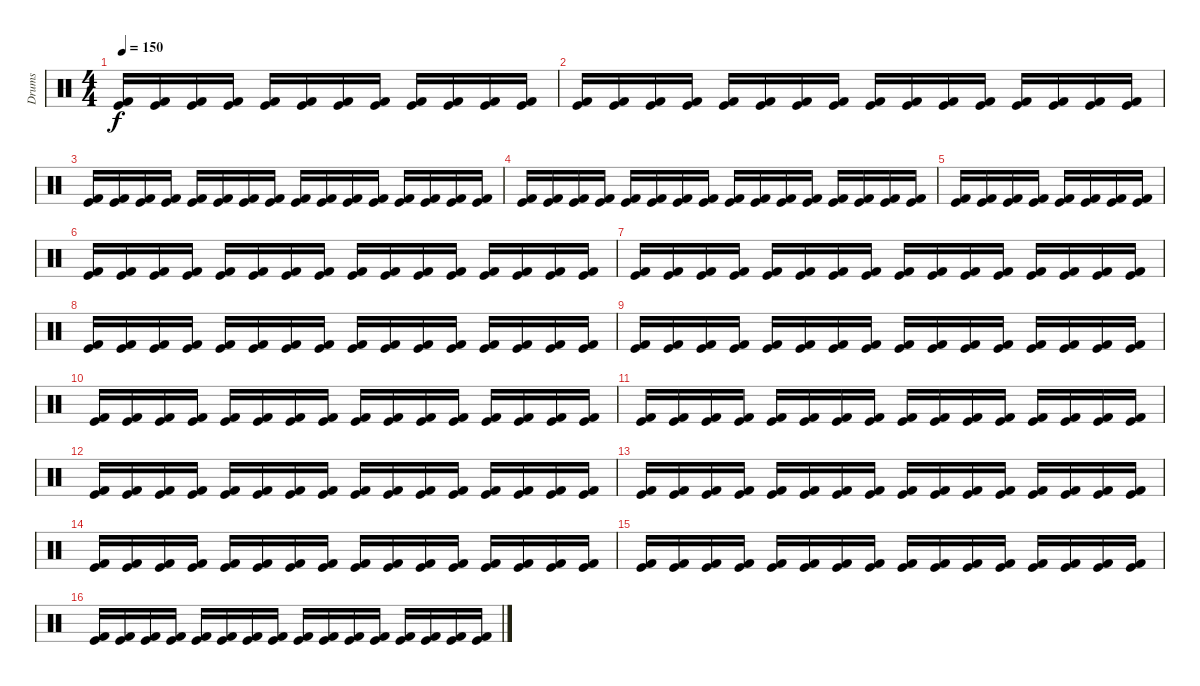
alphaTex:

\track ("Drums" "Drums") {instrument percussion}
\staff {score}
\articulation defaults
\ts (4 4)
\tempo 150
\clef neutral
\ks c
("Kick (hit) 2" "Kick (hit)").16{dy f} ("Kick (hit) 2" "Kick (hit)").16 ("Kick (hit) 2" "Kick (hit)").16 ("Kick (hit) 2" "Kick (hit)").16 ("Kick (hit) 2" "Kick (hit)").16 ("Kick (hit) 2" "Kick (hit)").16 ("Kick (hit) 2" "Kick (hit)").16 ("Kick (hit) 2" "Kick (hit)").16 ("Kick (hit) 2" "Kick (hit)").16 ("Kick (hit) 2" "Kick (hit)").16 ("Kick (hit) 2" "Kick (hit)").16 ("Kick (hit) 2" "Kick (hit)").16 |
("Kick (hit) 2" "Kick (hit)").16 ("Kick (hit) 2" "Kick (hit)").16 ("Kick (hit) 2" "Kick (hit)").16 ("Kick (hit) 2" "Kick (hit)").16 ("Kick (hit) 2" "Kick (hit)").16 ("Kick (hit) 2" "Kick (hit)").16 ("Kick (hit) 2" "Kick (hit)").16 ("Kick (hit) 2" "Kick (hit)").16 ("Kick (hit) 2" "Kick (hit)").16 ("Kick (hit) 2" "Kick (hit)").16 ("Kick (hit) 2" "Kick (hit)").16 ("Kick (hit) 2" "Kick (hit)").16 ("Kick (hit) 2" "Kick (hit)").16 ("Kick (hit) 2" "Kick (hit)").16 ("Kick (hit) 2" "Kick (hit)").16 ("Kick (hit) 2" "Kick (hit)").16 |
("Kick (hit) 2" "Kick (hit)").16 ("Kick (hit) 2" "Kick (hit)").16 ("Kick (hit) 2" "Kick (hit)").16 ("Kick (hit) 2" "Kick (hit)").16 ("Kick (hit) 2" "Kick (hit)").16 ("Kick (hit) 2" "Kick (hit)").16 ("Kick (hit) 2" "Kick (hit)").16 ("Kick (hit) 2" "Kick (hit)").16 ("Kick (hit) 2" "Kick (hit)").16 ("Kick (hit) 2" "Kick (hit)").16 ("Kick (hit) 2" "Kick (hit)").16 ("Kick (hit) 2" "Kick (hit)").16 ("Kick (hit) 2" "Kick (hit)").16 ("Kick (hit) 2" "Kick (hit)").16 ("Kick (hit) 2" "Kick (hit)").16 ("Kick (hit) 2" "Kick (hit)").16 |
("Kick (hit) 2" "Kick (hit)").16 ("Kick (hit) 2" "Kick (hit)").16 ("Kick (hit) 2" "Kick (hit)").16 ("Kick (hit) 2" "Kick (hit)").16 ("Kick (hit) 2" "Kick (hit)").16 ("Kick (hit) 2" "Kick (hit)").16 ("Kick (hit) 2" "Kick (hit)").16 ("Kick (hit) 2" "Kick (hit)").16 ("Kick (hit) 2" "Kick (hit)").16 ("Kick (hit) 2" "Kick (hit)").16 ("Kick (hit) 2" "Kick (hit)").16 ("Kick (hit) 2" "Kick (hit)").16 ("Kick (hit) 2" "Kick (hit)").16 ("Kick (hit) 2" "Kick (hit)").16 ("Kick (hit) 2" "Kick (hit)").16 ("Kick (hit) 2" "Kick (hit)").16 |
("Kick (hit) 2" "Kick (hit)").16 ("Kick (hit) 2" "Kick (hit)").16 ("Kick (hit) 2" "Kick (hit)").16 ("Kick (hit) 2" "Kick (hit)").16 ("Kick (hit) 2" "Kick (hit)").16 ("Kick (hit) 2" "Kick (hit)").16 ("Kick (hit) 2" "Kick (hit)").16 ("Kick (hit) 2" "Kick (hit)").16 |
("Kick (hit) 2" "Kick (hit)").16 ("Kick (hit) 2" "Kick (hit)").16 ("Kick (hit) 2" "Kick (hit)").16 ("Kick (hit) 2" "Kick (hit)").16 ("Kick (hit) 2" "Kick (hit)").16 ("Kick (hit) 2" "Kick (hit)").16 ("Kick (hit) 2" "Kick (hit)").16 ("Kick (hit) 2" "Kick (hit)").16 ("Kick (hit) 2" "Kick (hit)").16 ("Kick (hit) 2" "Kick (hit)").16 ("Kick (hit) 2" "Kick (hit)").16 ("Kick (hit) 2" "Kick (hit)").16 ("Kick (hit) 2" "Kick (hit)").16 ("Kick (hit) 2" "Kick (hit)").16 ("Kick (hit) 2" "Kick (hit)").16 ("Kick (hit) 2" "Kick (hit)").16 |
("Kick (hit) 2" "Kick (hit)").16 ("Kick (hit) 2" "Kick (hit)").16 ("Kick (hit) 2" "Kick (hit)").16 ("Kick (hit) 2" "Kick (hit)").16 ("Kick (hit) 2" "Kick (hit)").16 ("Kick (hit) 2" "Kick (hit)").16 ("Kick (hit) 2" "Kick (hit)").16 ("Kick (hit) 2" "Kick (hit)").16 ("Kick (hit) 2" "Kick (hit)").16 ("Kick (hit) 2" "Kick (hit)").16 ("Kick (hit) 2" "Kick (hit)").16 ("Kick (hit) 2" "Kick (hit)").16 ("Kick (hit) 2" "Kick (hit)").16 ("Kick (hit) 2" "Kick (hit)").16 ("Kick (hit) 2" "Kick (hit)").16 ("Kick (hit) 2" "Kick (hit)").16 |
("Kick (hit) 2" "Kick (hit)").16 ("Kick (hit) 2" "Kick (hit)").16 ("Kick (hit) 2" "Kick (hit)").16 ("Kick (hit) 2" "Kick (hit)").16 ("Kick (hit) 2" "Kick (hit)").16 ("Kick (hit) 2" "Kick (hit)").16 ("Kick (hit) 2" "Kick (hit)").16 ("Kick (hit) 2" "Kick (hit)").16 ("Kick (hit) 2" "Kick (hit)").16 ("Kick (hit) 2" "Kick (hit)").16 ("Kick (hit) 2" "Kick (hit)").16 ("Kick (hit) 2" "Kick (hit)").16 ("Kick (hit) 2" "Kick (hit)").16 ("Kick (hit) 2" "Kick (hit)").16 ("Kick (hit) 2" "Kick (hit)").16 ("Kick (hit) 2" "Kick (hit)").16 |
("Kick (hit) 2" "Kick (hit)").16 ("Kick (hit) 2" "Kick (hit)").16 ("Kick (hit) 2" "Kick (hit)").16 ("Kick (hit) 2" "Kick (hit)").16 ("Kick (hit) 2" "Kick (hit)").16 ("Kick (hit) 2" "Kick (hit)").16 ("Kick (hit) 2" "Kick (hit)").16 ("Kick (hit) 2" "Kick (hit)").16 ("Kick (hit) 2" "Kick (hit)").16 ("Kick (hit) 2" "Kick (hit)").16 ("Kick (hit) 2" "Kick (hit)").16 ("Kick (hit) 2" "Kick (hit)").16 ("Kick (hit) 2" "Kick (hit)").16 ("Kick (hit) 2" "Kick (hit)").16 ("Kick (hit) 2" "Kick (hit)").16 ("Kick (hit) 2" "Kick (hit)").16 |
("Kick (hit) 2" "Kick (hit)").16 ("Kick (hit) 2" "Kick (hit)").16 ("Kick (hit) 2" "Kick (hit)").16 ("Kick (hit) 2" "Kick (hit)").16 ("Kick (hit) 2" "Kick (hit)").16 ("Kick (hit) 2" "Kick (hit)").16 ("Kick (hit) 2" "Kick (hit)").16 ("Kick (hit) 2" "Kick (hit)").16 ("Kick (hit) 2" "Kick (hit)").16 ("Kick (hit) 2" "Kick (hit)").16 ("Kick (hit) 2" "Kick (hit)").16 ("Kick (hit) 2" "Kick (hit)").16 ("Kick (hit) 2" "Kick (hit)").16 ("Kick (hit) 2" "Kick (hit)").16 ("Kick (hit) 2" "Kick (hit)").16 ("Kick (hit) 2" "Kick (hit)").16 |
("Kick (hit) 2" "Kick (hit)").16 ("Kick (hit) 2" "Kick (hit)").16 ("Kick (hit) 2" "Kick (hit)").16 ("Kick (hit) 2" "Kick (hit)").16 ("Kick (hit) 2" "Kick (hit)").16 ("Kick (hit) 2" "Kick (hit)").16 ("Kick (hit) 2" "Kick (hit)").16 ("Kick (hit) 2" "Kick (hit)").16 ("Kick (hit) 2" "Kick (hit)").16 ("Kick (hit) 2" "Kick (hit)").16 ("Kick (hit) 2" "Kick (hit)").16 ("Kick (hit) 2" "Kick (hit)").16 ("Kick (hit) 2" "Kick (hit)").16 ("Kick (hit) 2" "Kick (hit)").16 ("Kick (hit) 2" "Kick (hit)").16 ("Kick (hit) 2" "Kick (hit)").16 |
("Kick (hit) 2" "Kick (hit)").16 ("Kick (hit) 2" "Kick (hit)").16 ("Kick (hit) 2" "Kick (hit)").16 ("Kick (hit) 2" "Kick (hit)").16 ("Kick (hit) 2" "Kick (hit)").16 ("Kick (hit) 2" "Kick (hit)").16 ("Kick (hit) 2" "Kick (hit)").16 ("Kick (hit) 2" "Kick (hit)").16 ("Kick (hit) 2" "Kick (hit)").16 ("Kick (hit) 2" "Kick (hit)").16 ("Kick (hit) 2" "Kick (hit)").16 ("Kick (hit) 2" "Kick (hit)").16 ("Kick (hit) 2" "Kick (hit)").16 ("Kick (hit) 2" "Kick (hit)").16 ("Kick (hit) 2" "Kick (hit)").16 ("Kick (hit) 2" "Kick (hit)").16 |
("Kick (hit) 2" "Kick (hit)").16 ("Kick (hit) 2" "Kick (hit)").16 ("Kick (hit) 2" "Kick (hit)").16 ("Kick (hit) 2" "Kick (hit)").16 ("Kick (hit) 2" "Kick (hit)").16 ("Kick (hit) 2" "Kick (hit)").16 ("Kick (hit) 2" "Kick (hit)").16 ("Kick (hit) 2" "Kick (hit)").16 ("Kick (hit) 2" "Kick (hit)").16 ("Kick (hit) 2" "Kick (hit)").16 ("Kick (hit) 2" "Kick (hit)").16 ("Kick (hit) 2" "Kick (hit)").16 ("Kick (hit) 2" "Kick (hit)").16 ("Kick (hit) 2" "Kick (hit)").16 ("Kick (hit) 2" "Kick (hit)").16 ("Kick (hit) 2" "Kick (hit)").16 |
("Kick (hit) 2" "Kick (hit)").16 ("Kick (hit) 2" "Kick (hit)").16 ("Kick (hit) 2" "Kick (hit)").16 ("Kick (hit) 2" "Kick (hit)").16 ("Kick (hit) 2" "Kick (hit)").16 ("Kick (hit) 2" "Kick (hit)").16 ("Kick (hit) 2" "Kick (hit)").16 ("Kick (hit) 2" "Kick (hit)").16 ("Kick (hit) 2" "Kick (hit)").16 ("Kick (hit) 2" "Kick (hit)").16 ("Kick (hit) 2" "Kick (hit)").16 ("Kick (hit) 2" "Kick (hit)").16 ("Kick (hit) 2" "Kick (hit)").16 ("Kick (hit) 2" "Kick (hit)").16 ("Kick (hit) 2" "Kick (hit)").16 ("Kick (hit) 2" "Kick (hit)").16 |
("Kick (hit) 2" "Kick (hit)").16 ("Kick (hit) 2" "Kick (hit)").16 ("Kick (hit) 2" "Kick (hit)").16 ("Kick (hit) 2" "Kick (hit)").16 ("Kick (hit) 2" "Kick (hit)").16 ("Kick (hit) 2" "Kick (hit)").16 ("Kick (hit) 2" "Kick (hit)").16 ("Kick (hit) 2" "Kick (hit)").16 ("Kick (hit) 2" "Kick (hit)").16 ("Kick (hit) 2" "Kick (hit)").16 ("Kick (hit) 2" "Kick (hit)").16 ("Kick (hit) 2" "Kick (hit)").16 ("Kick (hit) 2" "Kick (hit)").16 ("Kick (hit) 2" "Kick (hit)").16 ("Kick (hit) 2" "Kick (hit)").16 ("Kick (hit) 2" "Kick (hit)").16 |
("Kick (hit) 2" "Kick (hit)").16 ("Kick (hit) 2" "Kick (hit)").16 ("Kick (hit) 2" "Kick (hit)").16 ("Kick (hit) 2" "Kick (hit)").16 ("Kick (hit) 2" "Kick (hit)").16 ("Kick (hit) 2" "Kick (hit)").16 ("Kick (hit) 2" "Kick (hit)").16 ("Kick (hit) 2" "Kick (hit)").16 ("Kick (hit) 2" "Kick (hit)").16 ("Kick (hit) 2" "Kick (hit)").16 ("Kick (hit) 2" "Kick (hit)").16 ("Kick (hit) 2" "Kick (hit)").16 ("Kick (hit) 2" "Kick (hit)").16 ("Kick (hit) 2" "Kick (hit)").16 ("Kick (hit) 2" "Kick (hit)").16 ("Kick (hit) 2" "Kick (hit)").16
